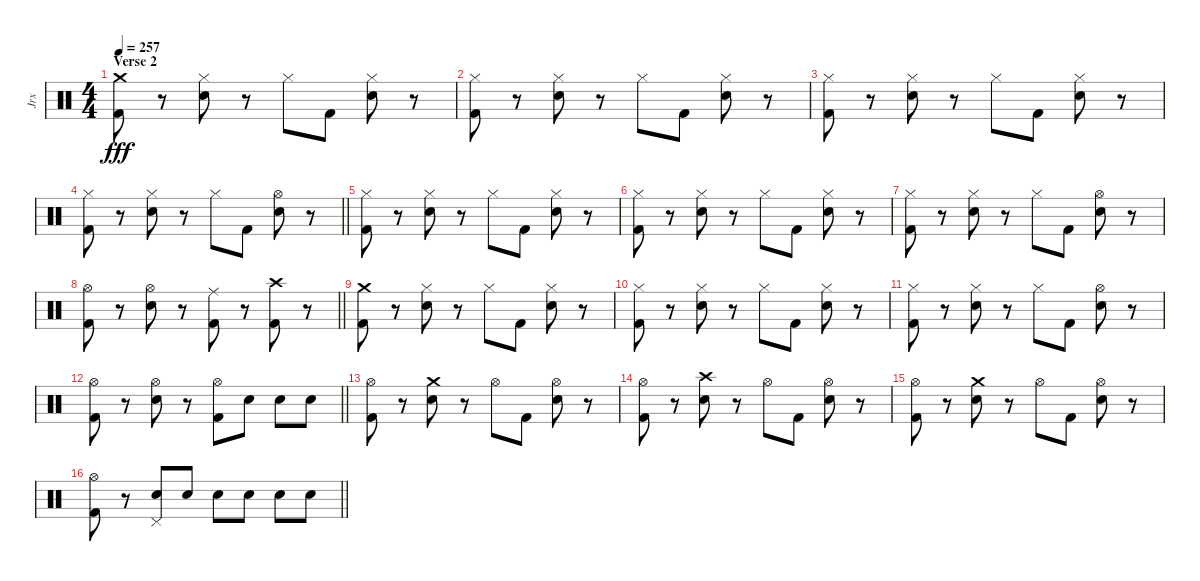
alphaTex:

\track ("Jrx" "Jrx") {instrument percussion}
\staff {score}
\articulation defaults
\ts (4 4)
\section ("" "Verse 2")
\tempo 257
\clef neutral
\ks c
("Kick (hit) 2" "Crash medium (hit)").8{dy fff} r.8 ("Hi-Hat (closed)" "Snare (hit) 2").8 r.8 "Hi-Hat (closed)".8 "Kick (hit) 2".8 ("Hi-Hat (closed)" "Snare (hit) 2").8 r.8 |
("Hi-Hat (closed)" "Kick (hit) 2").8 r.8 ("Hi-Hat (closed)" "Snare (hit) 2").8 r.8 "Hi-Hat (closed)".8 "Kick (hit) 2".8 ("Hi-Hat (closed)" "Snare (hit) 2").8 r.8 |
("Hi-Hat (closed)" "Kick (hit) 2").8 r.8 ("Hi-Hat (closed)" "Snare (hit) 2").8 r.8 "Hi-Hat (closed)".8 "Kick (hit) 2".8 ("Hi-Hat (closed)" "Snare (hit) 2").8 r.8 |
\barLineRight lightlight
("Hi-Hat (closed)" "Kick (hit) 2").8 r.8 ("Hi-Hat (closed)" "Snare (hit) 2").8 r.8 "Hi-Hat (closed)".8 "Kick (hit) 2".8 ("Hi-Hat (open)" "Snare (hit) 2").8 r.8 |
("Hi-Hat (closed)" "Kick (hit) 2").8 r.8 ("Hi-Hat (closed)" "Snare (hit) 2").8 r.8 "Hi-Hat (closed)".8 "Kick (hit) 2".8 ("Hi-Hat (closed)" "Snare (hit) 2").8 r.8 |
("Hi-Hat (closed)" "Kick (hit) 2").8 r.8 ("Hi-Hat (closed)" "Snare (hit) 2").8 r.8 "Hi-Hat (closed)".8 "Kick (hit) 2".8 ("Hi-Hat (closed)" "Snare (hit) 2").8 r.8 |
("Hi-Hat (closed)" "Kick (hit) 2").8 r.8 ("Hi-Hat (closed)" "Snare (hit) 2").8 r.8 "Hi-Hat (closed)".8 "Kick (hit) 2".8 ("Hi-Hat (open)" "Snare (hit) 2").8 r.8 |
\barLineRight lightlight
("Hi-Hat (open)" "Kick (hit) 2").8 r.8 ("Hi-Hat (open)" "Snare (hit) 2").8 r.8 ("Kick (hit) 2" "Ride (middle)").8 r.8 ("Kick (hit) 2" "Crash high (hit)").8 r.8 |
("Kick (hit) 2" "Crash medium (hit)").8 r.8 ("Hi-Hat (closed)" "Snare (hit) 2").8 r.8 "Hi-Hat (closed)".8 "Kick (hit) 2".8 ("Hi-Hat (closed)" "Snare (hit) 2").8 r.8 |
("Hi-Hat (closed)" "Kick (hit) 2").8 r.8 ("Hi-Hat (closed)" "Snare (hit) 2").8 r.8 "Hi-Hat (closed)".8 "Kick (hit) 2".8 ("Hi-Hat (closed)" "Snare (hit) 2").8 r.8 |
("Hi-Hat (closed)" "Kick (hit) 2").8 r.8 ("Hi-Hat (closed)" "Snare (hit) 2").8 r.8 "Hi-Hat (closed)".8 "Kick (hit) 2".8 ("Hi-Hat (open)" "Snare (hit) 2").8 r.8 |
\barLineRight lightlight
("Hi-Hat (open)" "Kick (hit) 2").8 r.8 ("Hi-Hat (open)" "Snare (hit) 2").8 r.8 ("Hi-Hat (open)" "Kick (hit) 2").8 "Snare (hit) 2".8 "Snare (hit) 2".8 "Snare (hit) 2".8 |
("Hi-Hat (open)" "Kick (hit) 2").8 r.8 ("Snare (hit) 2" "Crash medium (hit)").8 r.8 "Hi-Hat (open)".8 "Kick (hit) 2".8 ("Hi-Hat (open)" "Snare (hit) 2").8 r.8 |
("Hi-Hat (open)" "Kick (hit) 2").8 r.8 ("Snare (hit) 2" "Crash high (hit)").8 r.8 "Hi-Hat (open)".8 "Kick (hit) 2".8 ("Hi-Hat (open)" "Snare (hit) 2").8 r.8 |
("Hi-Hat (open)" "Kick (hit) 2").8 r.8 ("Snare (hit) 2" "Crash medium (hit)").8 r.8 "Hi-Hat (open)".8 "Kick (hit) 2".8 ("Hi-Hat (open)" "Snare (hit) 2").8 r.8 |
\barLineRight lightlight
("Hi-Hat (open)" "Kick (hit) 2").8 r.8 ("Pedal Hi-Hat (hit)" "Snare (hit) 2").8 "Snare (hit) 2".8 "Snare (hit) 2".8 "Snare (hit) 2".8 "Snare (hit) 2".8 "Snare (hit) 2".8
